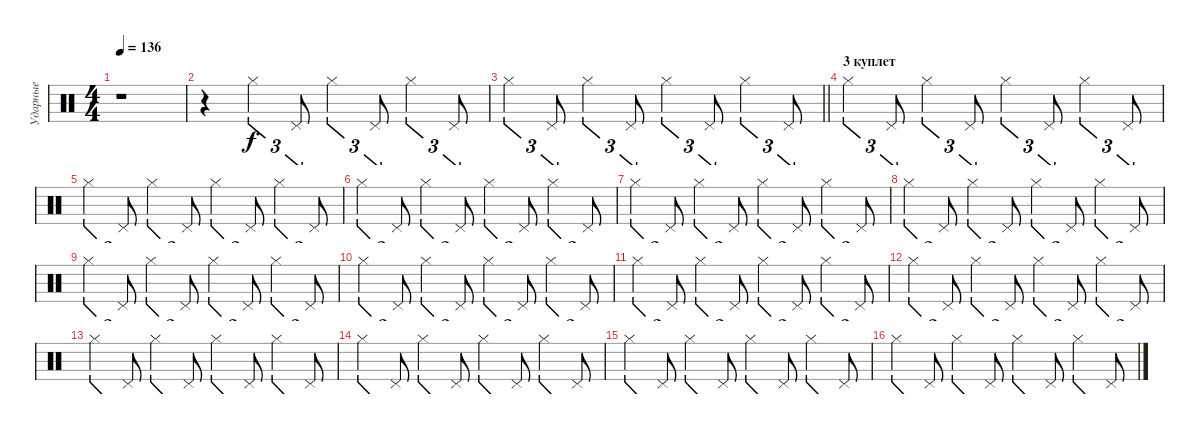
\track ("Ударные" "Ударные") {instrument percussion}
\staff {score}
\articulation defaults
\ts (4 4)
\tempo 136
\clef neutral
\ks c
r.1{dy f} |
r.4 "Hi-Hat (closed)".4{tu (3 2)} "Pedal Hi-Hat (hit)".8{tu (3 2)} "Hi-Hat (closed)".4{tu (3 2)} "Pedal Hi-Hat (hit)".8{tu (3 2)} "Hi-Hat (closed)".4{tu (3 2)} "Pedal Hi-Hat (hit)".8{tu (3 2)} |
\barLineRight lightlight "Hi-Hat (closed)".4{tu (3 2)} "Pedal Hi-Hat (hit)".8{tu (3 2)} "Hi-Hat (closed)".4{tu (3 2)} "Pedal Hi-Hat (hit)".8{tu (3 2)} "Hi-Hat (closed)".4{tu (3 2)} "Pedal Hi-Hat (hit)".8{tu (3 2)} "Hi-Hat (closed)".4{tu (3 2)} "Pedal Hi-Hat (hit)".8{tu (3 2)}
|
\section ("" "3 куплет")
"Hi-Hat (closed)".4{tu (3 2)} "Pedal Hi-Hat (hit)".8{tu (3 2)} "Hi-Hat (closed)".4{tu (3 2)} "Pedal Hi-Hat (hit)".8{tu (3 2)} "Hi-Hat (closed)".4{tu (3 2)} "Pedal Hi-Hat (hit)".8{tu (3 2)} "Hi-Hat (closed)".4{tu (3 2)} "Pedal Hi-Hat (hit)".8{tu (3 2)} |
"Hi-Hat (closed)".4{tu (3 2)} "Pedal Hi-Hat (hit)".8{tu (3 2)} "Hi-Hat (closed)".4{tu (3 2)} "Pedal Hi-Hat (hit)".8{tu (3 2)} "Hi-Hat (closed)".4{tu (3 2)} "Pedal Hi-Hat (hit)".8{tu (3 2)} "Hi-Hat (closed)".4{tu (3 2)} "Pedal Hi-Hat (hit)".8{tu (3 2)} |
"Hi-Hat (closed)".4{tu (3 2)} "Pedal Hi-Hat (hit)".8{tu (3 2)} "Hi-Hat (closed)".4{tu (3 2)} "Pedal Hi-Hat (hit)".8{tu (3 2)} "Hi-Hat (closed)".4{tu (3 2)} "Pedal Hi-Hat (hit)".8{tu (3 2)} "Hi-Hat (closed)".4{tu (3 2)} "Pedal Hi-Hat (hit)".8{tu (3 2)} |
"Hi-Hat (closed)".4{tu (3 2)} "Pedal Hi-Hat (hit)".8{tu (3 2)} "Hi-Hat (closed)".4{tu (3 2)} "Pedal Hi-Hat (hit)".8{tu (3 2)} "Hi-Hat (closed)".4{tu (3 2)} "Pedal Hi-Hat (hit)".8{tu (3 2)} "Hi-Hat (closed)".4{tu (3 2)} "Pedal Hi-Hat (hit)".8{tu (3 2)} |
"Hi-Hat (closed)".4{tu (3 2)} "Pedal Hi-Hat (hit)".8{tu (3 2)} "Hi-Hat (closed)".4{tu (3 2)} "Pedal Hi-Hat (hit)".8{tu (3 2)} "Hi-Hat (closed)".4{tu (3 2)} "Pedal Hi-Hat (hit)".8{tu (3 2)} "Hi-Hat (closed)".4{tu (3 2)} "Pedal Hi-Hat (hit)".8{tu (3 2)} |
"Hi-Hat (closed)".4{tu (3 2)} "Pedal Hi-Hat (hit)".8{tu (3 2)} "Hi-Hat (closed)".4{tu (3 2)} "Pedal Hi-Hat (hit)".8{tu (3 2)} "Hi-Hat (closed)".4{tu (3 2)} "Pedal Hi-Hat (hit)".8{tu (3 2)} "Hi-Hat (closed)".4{tu (3 2)} "Pedal Hi-Hat (hit)".8{tu (3 2)} |
"Hi-Hat (closed)".4{tu (3 2)} "Pedal Hi-Hat (hit)".8{tu (3 2)} "Hi-Hat (closed)".4{tu (3 2)} "Pedal Hi-Hat (hit)".8{tu (3 2)} "Hi-Hat (closed)".4{tu (3 2)} "Pedal Hi-Hat (hit)".8{tu (3 2)} "Hi-Hat (closed)".4{tu (3 2)} "Pedal Hi-Hat (hit)".8{tu (3 2)} |
"Hi-Hat (closed)".4{tu (3 2)} "Pedal Hi-Hat (hit)".8{tu (3 2)} "Hi-Hat (closed)".4{tu (3 2)} "Pedal Hi-Hat (hit)".8{tu (3 2)} "Hi-Hat (closed)".4{tu (3 2)} "Pedal Hi-Hat (hit)".8{tu (3 2)} "Hi-Hat (closed)".4{tu (3 2)} "Pedal Hi-Hat (hit)".8{tu (3 2)} |
"Hi-Hat (closed)".4{tu (3 2)} "Pedal Hi-Hat (hit)".8{tu (3 2)} "Hi-Hat (closed)".4{tu (3 2)} "Pedal Hi-Hat (hit)".8{tu (3 2)} "Hi-Hat (closed)".4{tu (3 2)} "Pedal Hi-Hat (hit)".8{tu (3 2)} "Hi-Hat (closed)".4{tu (3 2)} "Pedal Hi-Hat (hit)".8{tu (3 2)} |
"Hi-Hat (closed)".4{tu (3 2)} "Pedal Hi-Hat (hit)".8{tu (3 2)} "Hi-Hat (closed)".4{tu (3 2)} "Pedal Hi-Hat (hit)".8{tu (3 2)} "Hi-Hat (closed)".4{tu (3 2)} "Pedal Hi-Hat (hit)".8{tu (3 2)} "Hi-Hat (closed)".4{tu (3 2)} "Pedal Hi-Hat (hit)".8{tu (3 2)} |
"Hi-Hat (closed)".4{tu (3 2)} "Pedal Hi-Hat (hit)".8{tu (3 2)} "Hi-Hat (closed)".4{tu (3 2)} "Pedal Hi-Hat (hit)".8{tu (3 2)} "Hi-Hat (closed)".4{tu (3 2)} "Pedal Hi-Hat (hit)".8{tu (3 2)} "Hi-Hat (closed)".4{tu (3 2)} "Pedal Hi-Hat (hit)".8{tu (3 2)} |
"Hi-Hat (closed)".4{tu (3 2)} "Pedal Hi-Hat (hit)".8{tu (3 2)} "Hi-Hat (closed)".4{tu (3 2)} "Pedal Hi-Hat (hit)".8{tu (3 2)} "Hi-Hat (closed)".4{tu (3 2)} "Pedal Hi-Hat (hit)".8{tu (3 2)} "Hi-Hat (closed)".4{tu (3 2)} "Pedal Hi-Hat (hit)".8{tu (3 2)} |
"Hi-Hat (closed)".4{tu (3 2)} "Pedal Hi-Hat (hit)".8{tu (3 2)} "Hi-Hat (closed)".4{tu (3 2)} "Pedal Hi-Hat (hit)".8{tu (3 2)} "Hi-Hat (closed)".4{tu (3 2)} "Pedal Hi-Hat (hit)".8{tu (3 2)} "Hi-Hat (closed)".4{tu (3 2)} "Pedal Hi-Hat (hit)".8{tu (3 2)}
